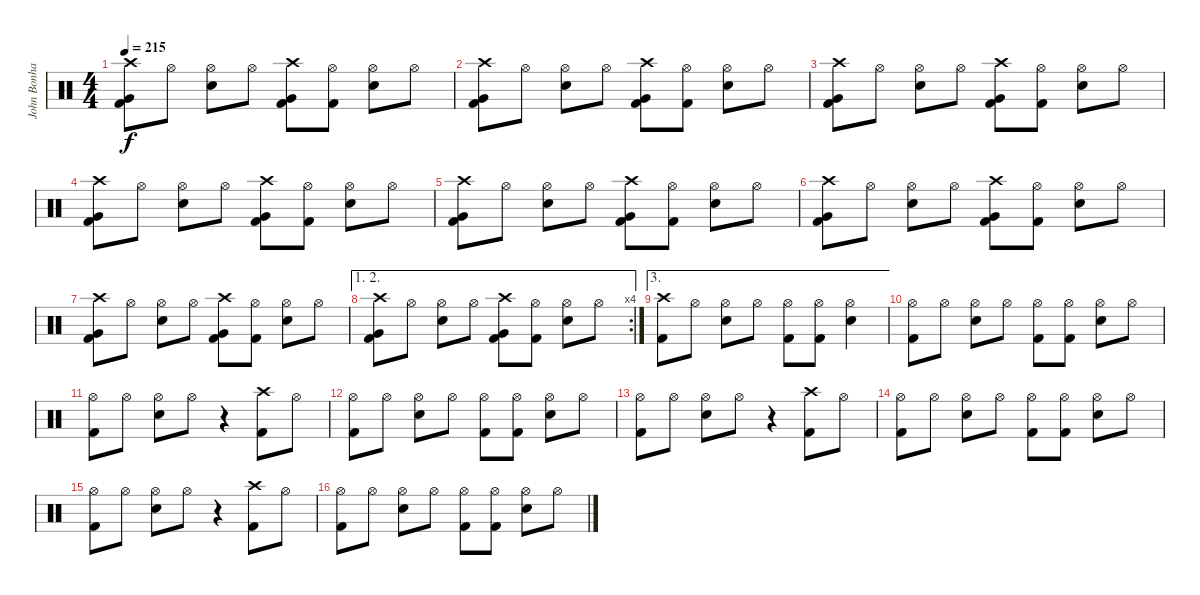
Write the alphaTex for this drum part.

\track ("John Bonham" "John Bonha") {instrument percussion}
\staff {score}
\articulation defaults
\ts (4 4)
\tempo 215
\clef neutral
\ks c
("Crash high (hit)" "Very Low Tom (hit)" "Kick (hit) 2").8{dy f} "Hi-Hat (open)".8 ("Hi-Hat (open)" "Snare (hit) 2").8 "Hi-Hat (open)".8 ("Crash high (hit)" "Very Low Tom (hit)" "Kick (hit) 2").8 ("Hi-Hat (open)" "Kick (hit) 2").8 ("Hi-Hat (open)" "Snare (hit) 2").8 "Hi-Hat (open)".8 |
("Crash high (hit)" "Very Low Tom (hit)" "Kick (hit) 2").8 "Hi-Hat (open)".8 ("Hi-Hat (open)" "Snare (hit) 2").8 "Hi-Hat (open)".8 ("Crash high (hit)" "Very Low Tom (hit)" "Kick (hit) 2").8 ("Hi-Hat (open)" "Kick (hit) 2").8 ("Hi-Hat (open)" "Snare (hit) 2").8 "Hi-Hat (open)".8 |
("Crash high (hit)" "Very Low Tom (hit)" "Kick (hit) 2").8 "Hi-Hat (open)".8 ("Hi-Hat (open)" "Snare (hit) 2").8 "Hi-Hat (open)".8 ("Crash high (hit)" "Very Low Tom (hit)" "Kick (hit) 2").8 ("Hi-Hat (open)" "Kick (hit) 2").8 ("Hi-Hat (open)" "Snare (hit) 2").8 "Hi-Hat (open)".8 |
("Crash high (hit)" "Very Low Tom (hit)" "Kick (hit) 2").8 "Hi-Hat (open)".8 ("Hi-Hat (open)" "Snare (hit) 2").8 "Hi-Hat (open)".8 ("Crash high (hit)" "Very Low Tom (hit)" "Kick (hit) 2").8 ("Hi-Hat (open)" "Kick (hit) 2").8 ("Hi-Hat (open)" "Snare (hit) 2").8 "Hi-Hat (open)".8 |
("Crash high (hit)" "Very Low Tom (hit)" "Kick (hit) 2").8 "Hi-Hat (open)".8 ("Hi-Hat (open)" "Snare (hit) 2").8 "Hi-Hat (open)".8 ("Crash high (hit)" "Very Low Tom (hit)" "Kick (hit) 2").8 ("Hi-Hat (open)" "Kick (hit) 2").8 ("Hi-Hat (open)" "Snare (hit) 2").8 "Hi-Hat (open)".8 |
("Crash high (hit)" "Very Low Tom (hit)" "Kick (hit) 2").8 "Hi-Hat (open)".8 ("Hi-Hat (open)" "Snare (hit) 2").8 "Hi-Hat (open)".8 ("Crash high (hit)" "Very Low Tom (hit)" "Kick (hit) 2").8 ("Hi-Hat (open)" "Kick (hit) 2").8 ("Hi-Hat (open)" "Snare (hit) 2").8 "Hi-Hat (open)".8 |
("Crash high (hit)" "Very Low Tom (hit)" "Kick (hit) 2").8 "Hi-Hat (open)".8 ("Hi-Hat (open)" "Snare (hit) 2").8 "Hi-Hat (open)".8 ("Crash high (hit)" "Very Low Tom (hit)" "Kick (hit) 2").8 ("Hi-Hat (open)" "Kick (hit) 2").8 ("Hi-Hat (open)" "Snare (hit) 2").8 "Hi-Hat (open)".8 |
\ae (1 2)
\rc 4
("Crash high (hit)" "Very Low Tom (hit)" "Kick (hit) 2").8 "Hi-Hat (open)".8 ("Hi-Hat (open)" "Snare (hit) 2").8 "Hi-Hat (open)".8 ("Crash high (hit)" "Very Low Tom (hit)" "Kick (hit) 2").8 ("Hi-Hat (open)" "Kick (hit) 2").8 ("Hi-Hat (open)" "Snare (hit) 2").8 "Hi-Hat (open)".8 |
\ae 3
("Crash high (hit)" "Kick (hit) 2").8 "Hi-Hat (open)".8 ("Hi-Hat (open)" "Snare (hit) 2").8 "Hi-Hat (open)".8 ("Hi-Hat (open)" "Kick (hit) 2").8 ("Hi-Hat (open)" "Kick (hit) 2").8 ("Hi-Hat (open)" "Snare (hit) 2").4 |
("Hi-Hat (open)" "Kick (hit) 2").8 "Hi-Hat (open)".8 ("Hi-Hat (open)" "Snare (hit) 2").8 "Hi-Hat (open)".8 ("Hi-Hat (open)" "Kick (hit) 2").8 ("Hi-Hat (open)" "Kick (hit) 2").8 ("Hi-Hat (open)" "Snare (hit) 2").8 "Hi-Hat (open)".8 |
("Hi-Hat (open)" "Kick (hit) 2").8 "Hi-Hat (open)".8 ("Hi-Hat (open)" "Snare (hit) 2").8 "Hi-Hat (open)".8 r.4 ("Crash high (hit)" "Kick (hit) 2").8 "Hi-Hat (open)".8 |
("Hi-Hat (open)" "Kick (hit) 2").8 "Hi-Hat (open)".8 ("Hi-Hat (open)" "Snare (hit) 2").8 "Hi-Hat (open)".8 ("Hi-Hat (open)" "Kick (hit) 2").8 ("Hi-Hat (open)" "Kick (hit) 2").8 ("Hi-Hat (open)" "Snare (hit) 2").8 "Hi-Hat (open)".8 |
("Hi-Hat (open)" "Kick (hit) 2").8 "Hi-Hat (open)".8 ("Hi-Hat (open)" "Snare (hit) 2").8 "Hi-Hat (open)".8 r.4 ("Crash high (hit)" "Kick (hit) 2").8 "Hi-Hat (open)".8 |
("Hi-Hat (open)" "Kick (hit) 2").8 "Hi-Hat (open)".8 ("Hi-Hat (open)" "Snare (hit) 2").8 "Hi-Hat (open)".8 ("Hi-Hat (open)" "Kick (hit) 2").8 ("Hi-Hat (open)" "Kick (hit) 2").8 ("Hi-Hat (open)" "Snare (hit) 2").8 "Hi-Hat (open)".8 |
("Hi-Hat (open)" "Kick (hit) 2").8 "Hi-Hat (open)".8 ("Hi-Hat (open)" "Snare (hit) 2").8 "Hi-Hat (open)".8 r.4 ("Crash high (hit)" "Kick (hit) 2").8 "Hi-Hat (open)".8 |
("Hi-Hat (open)" "Kick (hit) 2").8 "Hi-Hat (open)".8 ("Hi-Hat (open)" "Snare (hit) 2").8 "Hi-Hat (open)".8 ("Hi-Hat (open)" "Kick (hit) 2").8 ("Hi-Hat (open)" "Kick (hit) 2").8 ("Hi-Hat (open)" "Snare (hit) 2").8 "Hi-Hat (open)".8
